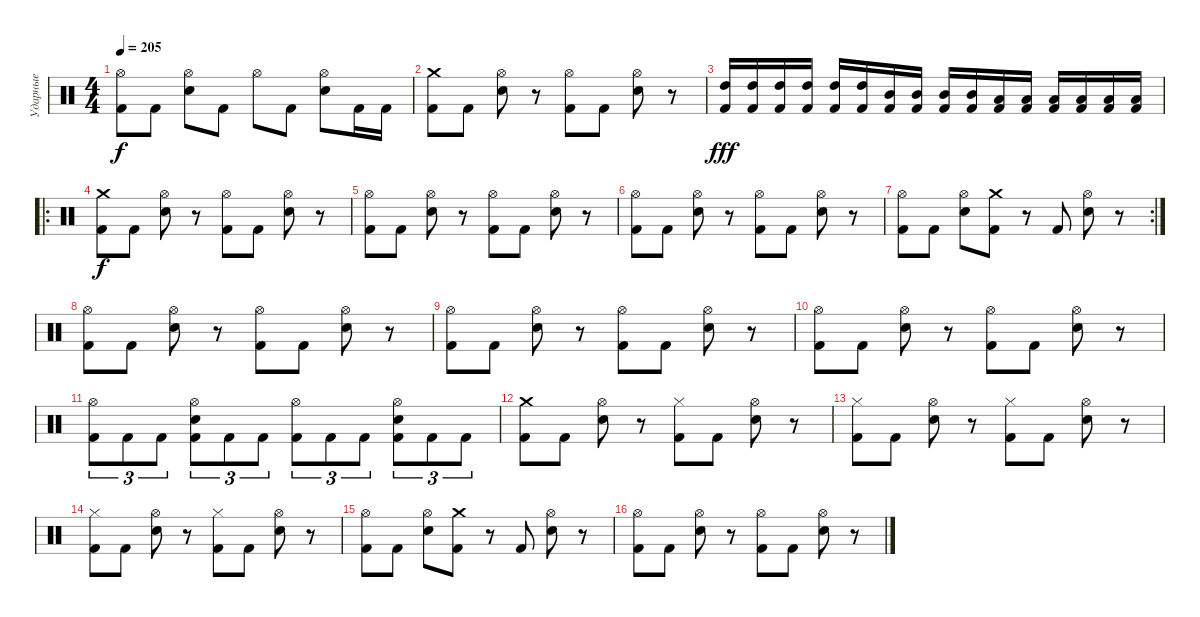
\track ("Ударные" "Ударные") {instrument percussion}
\staff {score}
\articulation defaults
\ts (4 4)
\tempo 205
\clef neutral
\ks c
("Hi-Hat (open)" "Kick (hit) 2").8{dy f} "Kick (hit) 2".8 ("Hi-Hat (open)" "Electric Snare (hit)").8 "Kick (hit) 2".8 "Hi-Hat (open)".8 "Kick (hit) 2".8 ("Hi-Hat (open)" "Electric Snare (hit)").8 "Kick (hit) 2".16 "Kick (hit) 2".16 |
("Crash medium (hit)" "Kick (hit) 2").8 "Kick (hit) 2".8 ("Hi-Hat (open)" "Electric Snare (hit)").8 r.8 ("Hi-Hat (open)" "Kick (hit) 2").8 "Kick (hit) 2".8 ("Hi-Hat (open)" "Electric Snare (hit)").8 r.8 |
("High Tom (hit)" "Kick (hit) 2").16{dy fff} ("High Tom (hit)" "Kick (hit) 2").16 ("High Tom (hit)" "Kick (hit) 2").16 ("High Tom (hit)" "Kick (hit) 2").16 ("High Tom (hit)" "Kick (hit) 2").16 ("High Tom (hit)" "Kick (hit) 2").16 ("Mid Tom (hit)" "Kick (hit) 2").16 ("Mid Tom (hit)" "Kick (hit) 2").16 ("Mid Tom (hit)" "Kick (hit) 2").16 ("Mid Tom (hit)" "Kick (hit) 2").16 ("Low Tom (hit)" "Kick (hit) 2").16 ("Low Tom (hit)" "Kick (hit) 2").16 ("Low Tom (hit)" "Kick (hit) 2").16 ("Low Floor Tom (hit)" "Kick (hit) 2").16 ("Low Floor Tom (hit)" "Kick (hit) 2").16 ("Low Floor Tom (hit)" "Kick (hit) 2").16 |
\ro
("Crash medium (hit)" "Kick (hit) 2").8{dy f} "Kick (hit) 2".8 ("Hi-Hat (open)" "Electric Snare (hit)").8 r.8 ("Hi-Hat (open)" "Kick (hit) 2").8 "Kick (hit) 2".8 ("Hi-Hat (open)" "Electric Snare (hit)").8 r.8 |
("Hi-Hat (open)" "Kick (hit) 2").8 "Kick (hit) 2".8 ("Hi-Hat (open)" "Electric Snare (hit)").8 r.8 ("Hi-Hat (open)" "Kick (hit) 2").8 "Kick (hit) 2".8 ("Hi-Hat (open)" "Electric Snare (hit)").8 r.8 |
("Hi-Hat (open)" "Kick (hit) 2").8 "Kick (hit) 2".8 ("Hi-Hat (open)" "Electric Snare (hit)").8 r.8 ("Hi-Hat (open)" "Kick (hit) 2").8 "Kick (hit) 2".8 ("Hi-Hat (open)" "Electric Snare (hit)").8 r.8 |
\rc 2
("Hi-Hat (open)" "Kick (hit) 2").8 "Kick (hit) 2".8 ("Hi-Hat (open)" "Electric Snare (hit)").8 ("Crash medium (hit)" "Kick (hit) 2").8 r.8 "Kick (hit) 2".8 ("Hi-Hat (open)" "Electric Snare (hit)").8 r.8 |
("Hi-Hat (open)" "Kick (hit) 2").8 "Kick (hit) 2".8 ("Hi-Hat (open)" "Electric Snare (hit)").8 r.8 ("Hi-Hat (open)" "Kick (hit) 2").8 "Kick (hit) 2".8 ("Hi-Hat (open)" "Electric Snare (hit)").8 r.8 |
("Hi-Hat (open)" "Kick (hit) 2").8 "Kick (hit) 2".8 ("Hi-Hat (open)" "Electric Snare (hit)").8 r.8 ("Hi-Hat (open)" "Kick (hit) 2").8 "Kick (hit) 2".8 ("Hi-Hat (open)" "Electric Snare (hit)").8 r.8 |
("Hi-Hat (open)" "Kick (hit) 2").8 "Kick (hit) 2".8 ("Hi-Hat (open)" "Electric Snare (hit)").8 r.8 ("Hi-Hat (open)" "Kick (hit) 2").8 "Kick (hit) 2".8 ("Hi-Hat (open)" "Electric Snare (hit)").8 r.8 |
("Hi-Hat (open)" "Kick (hit) 2").8{tu (3 2)} "Kick (hit) 2".8{tu (3 2)} "Kick (hit) 2".8{tu (3 2)} ("Hi-Hat (open)" "Kick (hit) 2" "Electric Snare (hit)").8{tu (3 2)} "Kick (hit) 2".8{tu (3 2)} "Kick (hit) 2".8{tu (3 2)} ("Hi-Hat (open)" "Kick (hit) 2").8{tu (3 2)} "Kick (hit) 2".8{tu (3 2)} "Kick (hit) 2".8{tu (3 2)} ("Hi-Hat (open)" "Kick (hit) 2" "Electric Snare (hit)").8{tu (3 2)} "Kick (hit) 2".8{tu (3 2)} "Kick (hit) 2".8{tu (3 2)} |
("Crash medium (hit)" "Kick (hit) 2").8 "Kick (hit) 2".8 ("Hi-Hat (open)" "Electric Snare (hit)").8 r.8 ("Hi-Hat (closed)" "Kick (hit) 2").8 "Kick (hit) 2".8 ("Hi-Hat (open)" "Electric Snare (hit)").8 r.8 |
("Hi-Hat (closed)" "Kick (hit) 2").8 "Kick (hit) 2".8 ("Hi-Hat (open)" "Electric Snare (hit)").8 r.8 ("Hi-Hat (closed)" "Kick (hit) 2").8 "Kick (hit) 2".8 ("Hi-Hat (open)" "Electric Snare (hit)").8 r.8 |
("Hi-Hat (closed)" "Kick (hit) 2").8 "Kick (hit) 2".8 ("Hi-Hat (open)" "Electric Snare (hit)").8 r.8 ("Hi-Hat (closed)" "Kick (hit) 2").8 "Kick (hit) 2".8 ("Hi-Hat (open)" "Electric Snare (hit)").8 r.8 |
("Hi-Hat (open)" "Kick (hit) 2").8 "Kick (hit) 2".8 ("Hi-Hat (open)" "Electric Snare (hit)").8 ("Crash medium (hit)" "Kick (hit) 2").8 r.8 "Kick (hit) 2".8 ("Hi-Hat (open)" "Electric Snare (hit)").8 r.8 |
("Hi-Hat (open)" "Kick (hit) 2").8 "Kick (hit) 2".8 ("Hi-Hat (open)" "Electric Snare (hit)").8 r.8 ("Hi-Hat (open)" "Kick (hit) 2").8 "Kick (hit) 2".8 ("Hi-Hat (open)" "Electric Snare (hit)").8 r.8
